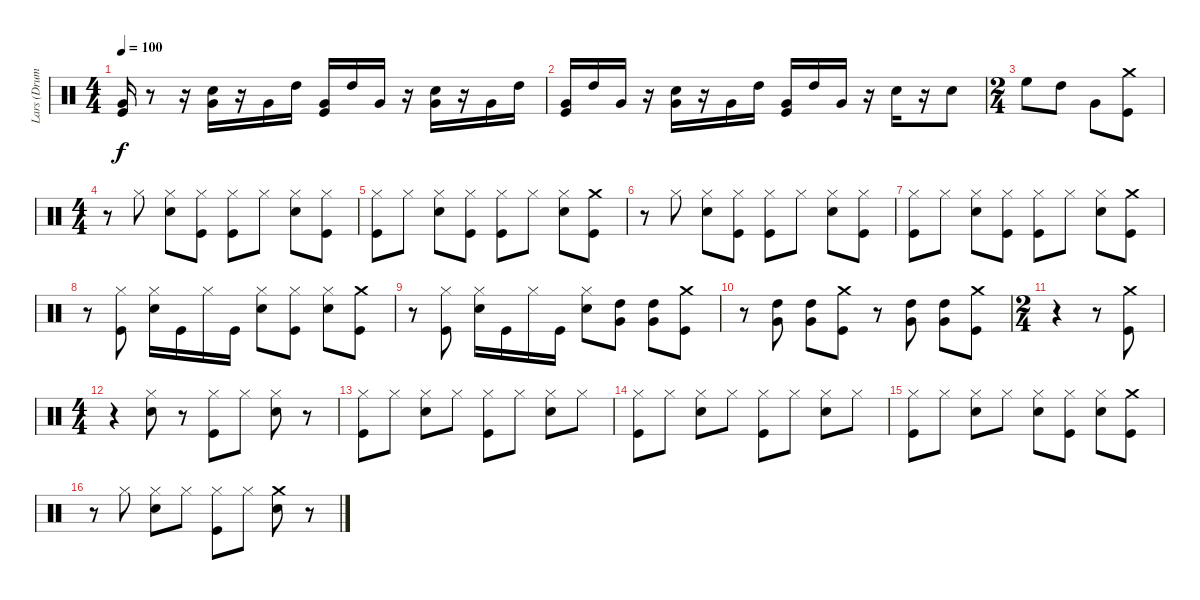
\track ("Lars (Drums)" "Lars (Drum") {instrument percussion}
\staff {score}
\articulation defaults
\ts (4 4)
\tempo 100
\clef neutral
\ks c
("Very Low Tom (hit)" "Kick (hit)").16{dy f} r.8 r.16 ("Very Low Tom (hit)" "Snare (hit) 2").16 r.16 "Very Low Tom (hit)".16 "High Tom (hit)".16 ("Very Low Tom (hit)" "Kick (hit)").16 "High Tom (hit)".16 "Very Low Tom (hit)".16 r.16 ("Very Low Tom (hit)" "Snare (hit) 2").16 r.16 "Very Low Tom (hit)".16 "High Tom (hit)".16 |
("Very Low Tom (hit)" "Kick (hit)").16 "High Tom (hit)".16 "Very Low Tom (hit)".16 r.16 ("Very Low Tom (hit)" "Snare (hit) 2").16 r.16 "Very Low Tom (hit)".16 "High Tom (hit)".16 ("Very Low Tom (hit)" "Kick (hit)").16 "High Tom (hit)".16 "Very Low Tom (hit)".16 r.16 "Snare (hit) 2".16 r.16 "Snare (hit) 2".8 |
\ts (2 4)
"High Floor Tom (hit)".8 "High Tom (hit)".8 "Very Low Tom (hit)".8 ("Crash medium (hit)" "Kick (hit)").8 |
\ts (4 4)
r.8 "Hi-Hat (closed)".8 ("Snare (hit) 2" "Hi-Hat (closed)").8 ("Hi-Hat (closed)" "Kick (hit)").8 ("Kick (hit)" "Hi-Hat (closed)").8 "Hi-Hat (closed)".8 ("Snare (hit) 2" "Hi-Hat (closed)").8 ("Kick (hit)" "Hi-Hat (closed)").8 |
("Hi-Hat (closed)" "Kick (hit)").8 "Hi-Hat (closed)".8 ("Snare (hit) 2" "Hi-Hat (closed)").8 ("Kick (hit)" "Hi-Hat (closed)").8 ("Hi-Hat (closed)" "Kick (hit)").8 "Hi-Hat (closed)".8 ("Snare (hit) 2" "Hi-Hat (closed)").8 ("Crash medium (hit)" "Kick (hit)").8 |
r.8 "Hi-Hat (closed)".8 ("Snare (hit) 2" "Hi-Hat (closed)").8 ("Hi-Hat (closed)" "Kick (hit)").8 ("Hi-Hat (closed)" "Kick (hit)").8 "Hi-Hat (closed)".8 ("Snare (hit) 2" "Hi-Hat (closed)").8 ("Kick (hit)" "Hi-Hat (closed)").8 |
("Hi-Hat (closed)" "Kick (hit)").8 "Hi-Hat (closed)".8 ("Snare (hit) 2" "Hi-Hat (closed)").8 ("Kick (hit)" "Hi-Hat (closed)").8 ("Hi-Hat (closed)" "Kick (hit)").8 "Hi-Hat (closed)".8 ("Snare (hit) 2" "Hi-Hat (closed)").8 ("Crash medium (hit)" "Kick (hit)").8 |
r.8 ("Kick (hit)" "Hi-Hat (closed)").8 ("Snare (hit) 2" "Hi-Hat (closed)").16 "Kick (hit)".16 "Hi-Hat (closed)".16 "Kick (hit)".16 ("Snare (hit) 2" "Hi-Hat (closed)").8 ("Kick (hit)" "Hi-Hat (closed)").8 ("Hi-Hat (closed)" "Snare (hit) 2").8 ("Crash medium (hit)" "Kick (hit)").8 |
r.8 ("Kick (hit)" "Hi-Hat (closed)").8 ("Snare (hit) 2" "Hi-Hat (closed)").16 "Kick (hit)".16 "Hi-Hat (closed)".16 "Kick (hit)".16 ("Snare (hit) 2" "Hi-Hat (closed)").8 ("High Tom (hit)" "Very Low Tom (hit)").8 ("High Tom (hit)" "Very Low Tom (hit)").8 ("Crash medium (hit)" "Kick (hit)").8 |
r.8 ("High Tom (hit)" "Very Low Tom (hit)").8 ("High Tom (hit)" "Very Low Tom (hit)").8 ("Crash medium (hit)" "Kick (hit)").8 r.8 ("High Tom (hit)" "Very Low Tom (hit)").8 ("High Tom (hit)" "Very Low Tom (hit)").8 ("Crash medium (hit)" "Kick (hit)").8 |
\ts (2 4)
r.4 r.8 ("Crash medium (hit)" "Kick (hit)").8 |
\ts (4 4)
r.4 ("Snare (hit) 2" "Hi-Hat (closed)").8 r.8 ("Kick (hit)" "Hi-Hat (closed)").8 "Hi-Hat (closed)".8 ("Snare (hit) 2" "Hi-Hat (closed)").8 r.8 |
("Kick (hit)" "Hi-Hat (closed)").8 "Hi-Hat (closed)".8 ("Snare (hit) 2" "Hi-Hat (closed)").8 "Hi-Hat (closed)".8 ("Kick (hit)" "Hi-Hat (closed)").8 "Hi-Hat (closed)".8 ("Snare (hit) 2" "Hi-Hat (closed)").8 "Hi-Hat (closed)".8 |
("Kick (hit)" "Hi-Hat (closed)").8 "Hi-Hat (closed)".8 ("Snare (hit) 2" "Hi-Hat (closed)").8 "Hi-Hat (closed)".8 ("Kick (hit)" "Hi-Hat (closed)").8 "Hi-Hat (closed)".8 ("Snare (hit) 2" "Hi-Hat (closed)").8 "Hi-Hat (closed)".8 |
("Hi-Hat (closed)" "Kick (hit)").8 "Hi-Hat (closed)".8 ("Snare (hit) 2" "Hi-Hat (closed)").8 "Hi-Hat (closed)".8 ("Hi-Hat (closed)" "Snare (hit) 2").8 ("Hi-Hat (closed)" "Kick (hit)").8 ("Hi-Hat (closed)" "Snare (hit) 2").8 ("Crash medium (hit)" "Kick (hit)").8 |
r.8 "Hi-Hat (closed)".8 ("Snare (hit) 2" "Hi-Hat (closed)").8 "Hi-Hat (closed)".8 ("Hi-Hat (closed)" "Kick (hit)").8 "Hi-Hat (closed)".8 ("Crash medium (hit)" "Snare (hit) 2").8 r.8
